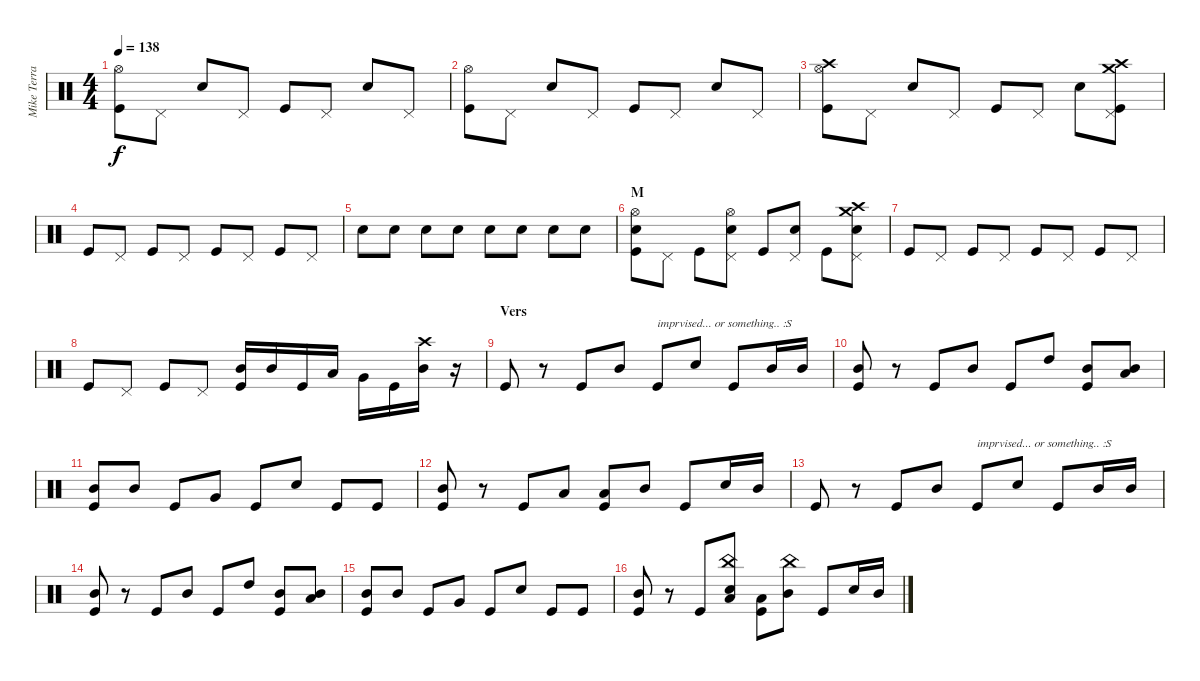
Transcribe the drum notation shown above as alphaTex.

\track ("Mike Terrana" "Mike Terra") {instrument percussion}
\staff {score}
\articulation defaults
\ts (4 4)
\tempo 138
\clef neutral
\ks c
("Hi-Hat (open)" "Kick (hit)").8{dy f} "Pedal Hi-Hat (hit)".8 "Snare (hit) 2".8 "Pedal Hi-Hat (hit)".8 "Kick (hit)".8 "Pedal Hi-Hat (hit)".8 "Snare (hit) 2".8 "Pedal Hi-Hat (hit)".8 |
("Hi-Hat (open)" "Kick (hit)").8 "Pedal Hi-Hat (hit)".8 "Snare (hit) 2".8 "Pedal Hi-Hat (hit)".8 "Kick (hit)".8 "Pedal Hi-Hat (hit)".8 "Snare (hit) 2".8 "Pedal Hi-Hat (hit)".8 |
("Hi-Hat (open)" "Crash high (hit)" "Kick (hit)").8 "Pedal Hi-Hat (hit)".8 "Snare (hit) 2".8 "Pedal Hi-Hat (hit)".8 "Kick (hit)".8 "Pedal Hi-Hat (hit)".8 "Snare (hit) 2".8 ("Pedal Hi-Hat (hit)" "Crash high (hit)" "Crash medium (hit)" "Kick (hit)").8 |
"Kick (hit)".8 "Pedal Hi-Hat (hit)".8 "Kick (hit)".8 "Pedal Hi-Hat (hit)".8 "Kick (hit)".8 "Pedal Hi-Hat (hit)".8 "Kick (hit)".8 "Pedal Hi-Hat (hit)".8 |
"Snare (hit) 2".8 "Snare (hit) 2".8 "Snare (hit) 2".8 "Snare (hit) 2".8 "Snare (hit) 2".8 "Snare (hit) 2".8 "Snare (hit) 2".8 "Snare (hit) 2".8 |
\section ("" "M")
("Hi-Hat (open)" "Snare (hit) 2" "Kick (hit)").8 "Pedal Hi-Hat (hit)".8 "Kick (hit)".8 ("Pedal Hi-Hat (hit)" "Hi-Hat (open)" "Snare (hit) 2").8 "Kick (hit)".8 ("Pedal Hi-Hat (hit)" "Snare (hit) 2").8 "Kick (hit)".8 ("Pedal Hi-Hat (hit)" "Crash medium (hit)" "Crash high (hit)" "Snare (hit) 2").8 |
"Kick (hit)".8 "Pedal Hi-Hat (hit)".8 "Kick (hit)".8 "Pedal Hi-Hat (hit)".8 "Kick (hit)".8 "Pedal Hi-Hat (hit)".8 "Kick (hit)".8 "Pedal Hi-Hat (hit)".8 |
"Kick (hit)".8 "Pedal Hi-Hat (hit)".8 "Kick (hit)".8 "Pedal Hi-Hat (hit)".8 ("Mid Tom (hit)" "Kick (hit)").16 "Mid Tom (hit)".16 "Kick (hit)".16 "Low Tom (hit)".16 "Very Low Tom (hit)".16 "Kick (hit)".16 ("Crash high (hit)" "Mid Tom (hit)").16 r.16 |
\section ("" "Vers")
"Kick (hit)".8 r.8 "Kick (hit)".8 "Mid Tom (hit)".8 "Kick (hit)".8{txt "imprvised... or something.. :S"} "Snare (hit) 2".8 "Kick (hit)".8 "Mid Tom (hit)".16 "Mid Tom (hit)".16 |
("Mid Tom (hit)" "Kick (hit)").8 r.8 "Kick (hit)".8 "Mid Tom (hit)".8 "Kick (hit)".8 "High Tom (hit)".8 ("Mid Tom (hit)" "Kick (hit)").8 ("Low Tom (hit)" "Mid Tom (hit)").8 |
("Mid Tom (hit)" "Kick (hit)").8 "Mid Tom (hit)".8 "Kick (hit)".8 "Very Low Tom (hit)".8 "Kick (hit)".8 "Snare (hit) 2".8 "Kick (hit)".8 "Kick (hit)".8 |
("Mid Tom (hit)" "Kick (hit)").8 r.8 "Kick (hit)".8 "Low Tom (hit)".8 ("Low Tom (hit)" "Kick (hit)").8 "Mid Tom (hit)".8 "Kick (hit)".8 "Snare (hit) 2".16 "Mid Tom (hit)".16 |
"Kick (hit)".8 r.8 "Kick (hit)".8 "Mid Tom (hit)".8 "Kick (hit)".8{txt "imprvised... or something.. :S"} "Snare (hit) 2".8 "Kick (hit)".8 "Mid Tom (hit)".16 "Mid Tom (hit)".16 |
("Mid Tom (hit)" "Kick (hit)").8 r.8 "Kick (hit)".8 "Mid Tom (hit)".8 "Kick (hit)".8 "High Tom (hit)".8 ("Mid Tom (hit)" "Kick (hit)").8 ("Low Tom (hit)" "Mid Tom (hit)").8 |
("Mid Tom (hit)" "Kick (hit)").8 "Mid Tom (hit)".8 "Kick (hit)".8 "Very Low Tom (hit)".8 "Kick (hit)".8 "Snare (hit) 2".8 "Kick (hit)".8 "Kick (hit)".8 |
("Mid Tom (hit)" "Kick (hit)").8 r.8 "Kick (hit)".8 ("China (hit)" "Electric Snare (hit)" "Low Tom (hit)").8 ("Low Tom (hit)" "Kick (hit)").8 ("China (hit)" "Mid Tom (hit)").8 "Kick (hit)".8 "Snare (hit) 2".16 "Mid Tom (hit)".16
